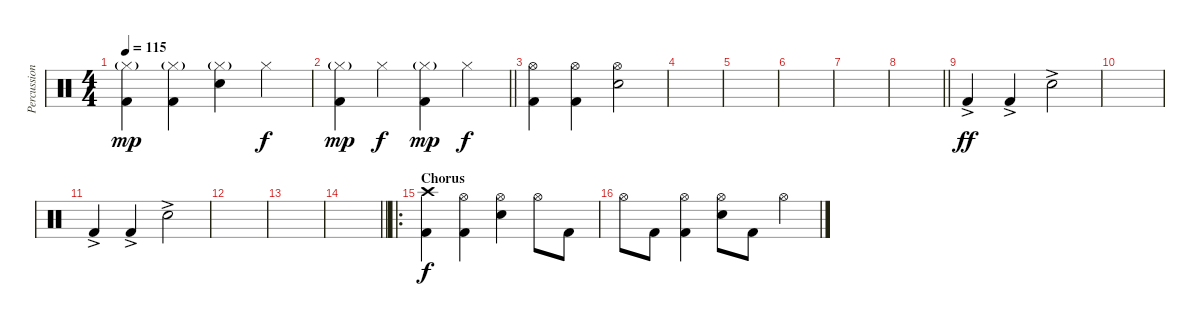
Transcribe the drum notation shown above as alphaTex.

\track ("Percussion" "Percussion") {instrument percussion}
\staff {score}
\articulation defaults
\ts (4 4)
\tempo 115
\clef neutral
\ks c
("Hi-Hat (closed)"{g} "Kick (hit) 2").4{dy mp} ("Hi-Hat (closed)"{g} "Kick (hit) 2").4 ("Hi-Hat (closed)"{g} "Electric Snare (hit)").4 "Hi-Hat (closed)".4{dy f} |
\barLineRight lightlight
("Hi-Hat (closed)"{g} "Kick (hit) 2").4{dy mp} "Hi-Hat (closed)".4{dy f} ("Hi-Hat (closed)"{g} "Kick (hit) 2").4{dy mp} "Hi-Hat (closed)".4{dy f} |
("Hi-Hat (open)" "Kick (hit) 2").4 ("Hi-Hat (open)" "Kick (hit) 2").4 ("Hi-Hat (open)" "Electric Snare (hit)").2 |
|
|
|
|
\barLineRight lightlight
|
"Kick (hit) 2"{ac}.4{dy ff} "Kick (hit) 2"{ac}.4 "Electric Snare (hit)"{ac}.2 |
|
"Kick (hit) 2"{ac}.4 "Kick (hit) 2"{ac}.4 "Electric Snare (hit)"{ac}.2 |
|
|
\barLineRight lightlight
|
\ro
\section ("" "Chorus")
("Crash high (hit)" "Kick (hit) 2").4{dy f} ("Hi-Hat (open)" "Kick (hit) 2").4 ("Hi-Hat (open)" "Electric Snare (hit)").4 "Hi-Hat (open)".8 "Kick (hit) 2".8 |
"Hi-Hat (open)".8 "Kick (hit) 2".8 ("Hi-Hat (open)" "Kick (hit) 2").4 ("Hi-Hat (open)" "Electric Snare (hit)").8 "Kick (hit) 2".8 "Hi-Hat (open)".4
